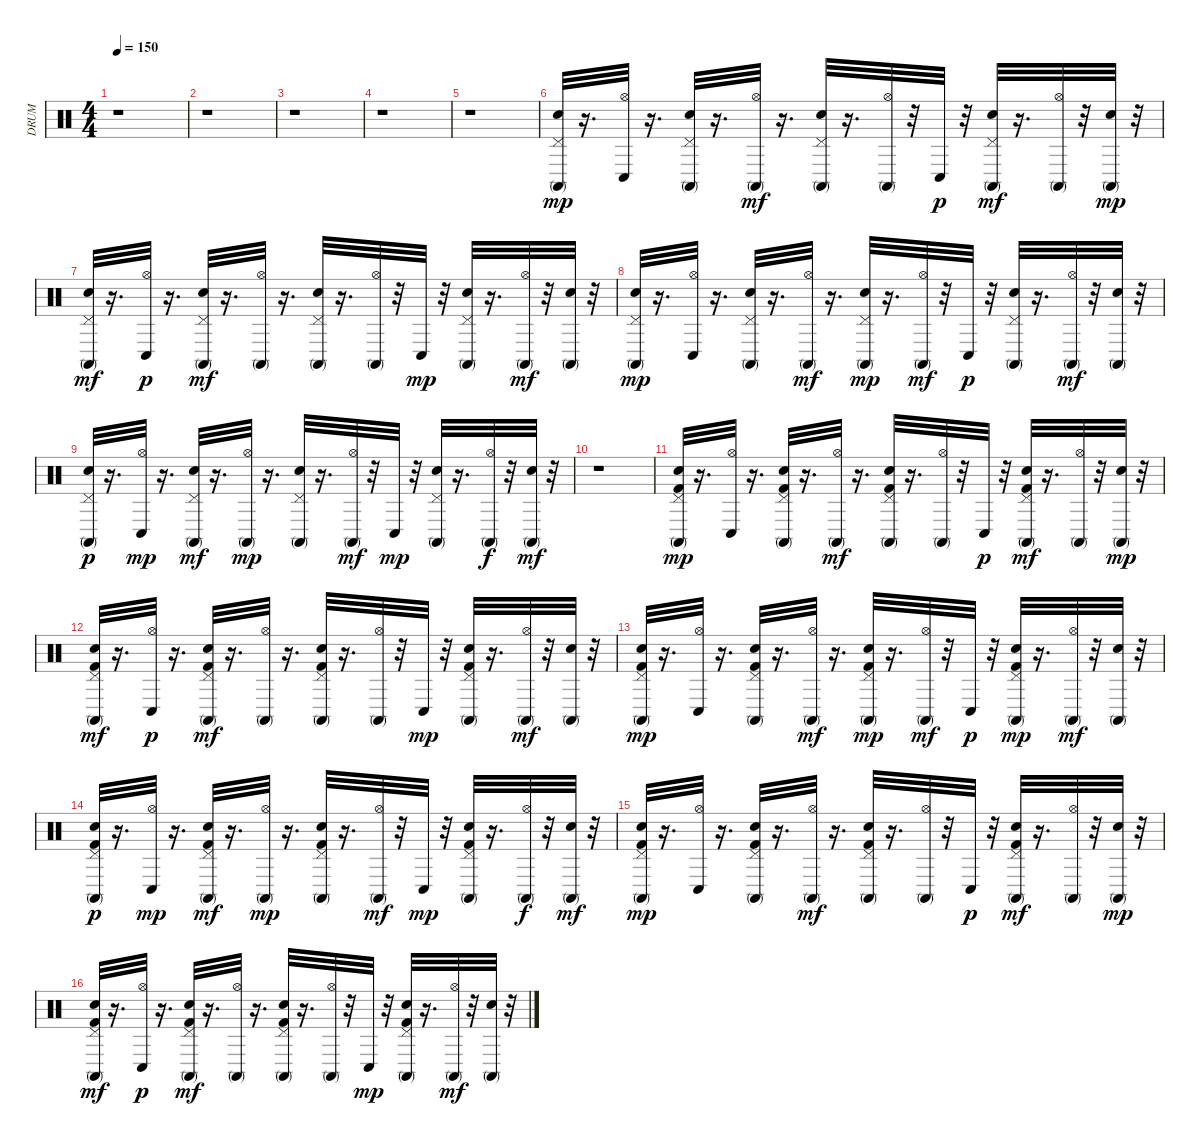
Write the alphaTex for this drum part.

\track ("DRUM" "DRUM") {instrument percussion}
\staff {score}
\articulation defaults
\ts (4 4)
\tempo 150
\clef neutral
\ks c
r.1{dy mp} |
r.1 |
r.1 |
r.1 |
r.1 |
("Hand Clap (hit)" "Pedal Hi-Hat (hit)" "Conga high (mute)").32 r.16{d} ("Hi-Hat (open)" "Conga low (hit)").32 r.16{d} ("Hand Clap (hit)" "Pedal Hi-Hat (hit)" "Conga high (mute)").32 r.16{d} ("Hi-Hat (open)" "Conga high (mute)").32{dy mf} r.16{d} ("Hand Clap (hit)" "Pedal Hi-Hat (hit)" "Conga high (mute)").32 r.16{d} ("Hi-Hat (open)" "Conga high (mute)").32 r.32 "Conga low (hit)".32{dy p} r.32 ("Hand Clap (hit)" "Pedal Hi-Hat (hit)" "Conga high (mute)").32{dy mf} r.16{d} ("Hi-Hat (open)" "Conga high (mute)").32 r.32 ("Hand Clap (hit)" "Conga high (mute)").32{dy mp} r.32 |
("Hand Clap (hit)" "Pedal Hi-Hat (hit)" "Conga high (mute)").32{dy mf} r.16{d} ("Hi-Hat (open)" "Conga low (hit)").32{dy p} r.16{d} ("Hand Clap (hit)" "Pedal Hi-Hat (hit)" "Conga high (mute)").32{dy mf} r.16{d} ("Hi-Hat (open)" "Conga high (mute)").32 r.16{d} ("Hand Clap (hit)" "Pedal Hi-Hat (hit)" "Conga high (mute)").32 r.16{d} ("Hi-Hat (open)" "Conga high (mute)").32 r.32 "Conga low (hit)".32{dy mp} r.32 ("Hand Clap (hit)" "Pedal Hi-Hat (hit)" "Conga high (mute)").32 r.16{d} ("Hi-Hat (open)" "Conga high (mute)").32{dy mf} r.32 ("Hand Clap (hit)" "Conga high (mute)").32 r.32 |
("Hand Clap (hit)" "Pedal Hi-Hat (hit)" "Conga high (mute)").32{dy mp} r.16{d} ("Hi-Hat (open)" "Conga low (hit)").32 r.16{d} ("Hand Clap (hit)" "Pedal Hi-Hat (hit)" "Conga high (mute)").32 r.16{d} ("Hi-Hat (open)" "Conga high (mute)").32{dy mf} r.16{d} ("Hand Clap (hit)" "Pedal Hi-Hat (hit)" "Conga high (mute)").32{dy mp} r.16{d} ("Hi-Hat (open)" "Conga high (mute)").32{dy mf} r.32 "Conga low (hit)".32{dy p} r.32 ("Hand Clap (hit)" "Pedal Hi-Hat (hit)" "Conga high (mute)").32 r.16{d} ("Hi-Hat (open)" "Conga high (mute)").32{dy mf} r.32 ("Hand Clap (hit)" "Conga high (mute)").32 r.32 |
("Hand Clap (hit)" "Pedal Hi-Hat (hit)" "Conga high (mute)").32{dy p} r.16{d} ("Hi-Hat (open)" "Conga low (hit)").32{dy mp} r.16{d} ("Hand Clap (hit)" "Pedal Hi-Hat (hit)" "Conga high (mute)").32{dy mf} r.16{d} ("Hi-Hat (open)" "Conga high (mute)").32{dy mp} r.16{d} ("Hand Clap (hit)" "Pedal Hi-Hat (hit)" "Conga high (mute)").32 r.16{d} ("Hi-Hat (open)" "Conga high (mute)").32{dy mf} r.32 "Conga low (hit)".32{dy mp} r.32 ("Hand Clap (hit)" "Pedal Hi-Hat (hit)" "Conga high (mute)").32 r.16{d} ("Hi-Hat (open)" "Conga high (mute)").32{dy f} r.32 ("Hand Clap (hit)" "Conga high (mute)").32{dy mf} r.32 |
r.1 |
("Kick (hit) 2" "Hand Clap (hit)" "Pedal Hi-Hat (hit)" "Conga high (mute)").32{dy mp} r.16{d} ("Hi-Hat (open)" "Conga low (hit)").32 r.16{d} ("Kick (hit) 2" "Hand Clap (hit)" "Pedal Hi-Hat (hit)" "Conga high (mute)").32 r.16{d} ("Hi-Hat (open)" "Conga high (mute)").32{dy mf} r.16{d} ("Kick (hit) 2" "Hand Clap (hit)" "Pedal Hi-Hat (hit)" "Conga high (mute)").32 r.16{d} ("Hi-Hat (open)" "Conga high (mute)").32 r.32 "Conga low (hit)".32{dy p} r.32 ("Kick (hit) 2" "Hand Clap (hit)" "Pedal Hi-Hat (hit)" "Conga high (mute)").32{dy mf} r.16{d} ("Hi-Hat (open)" "Conga high (mute)").32 r.32 ("Hand Clap (hit)" "Conga high (mute)").32{dy mp} r.32 |
("Kick (hit) 2" "Hand Clap (hit)" "Pedal Hi-Hat (hit)" "Conga high (mute)").32{dy mf} r.16{d} ("Hi-Hat (open)" "Conga low (hit)").32{dy p} r.16{d} ("Kick (hit) 2" "Hand Clap (hit)" "Pedal Hi-Hat (hit)" "Conga high (mute)").32{dy mf} r.16{d} ("Hi-Hat (open)" "Conga high (mute)").32 r.16{d} ("Kick (hit) 2" "Hand Clap (hit)" "Pedal Hi-Hat (hit)" "Conga high (mute)").32 r.16{d} ("Hi-Hat (open)" "Conga high (mute)").32 r.32 "Conga low (hit)".32{dy mp} r.32 ("Kick (hit) 2" "Hand Clap (hit)" "Pedal Hi-Hat (hit)" "Conga high (mute)").32 r.16{d} ("Hi-Hat (open)" "Conga high (mute)").32{dy mf} r.32 ("Hand Clap (hit)" "Conga high (mute)").32 r.32 |
("Kick (hit) 2" "Hand Clap (hit)" "Pedal Hi-Hat (hit)" "Conga high (mute)").32{dy mp} r.16{d} ("Hi-Hat (open)" "Conga low (hit)").32 r.16{d} ("Kick (hit) 2" "Hand Clap (hit)" "Pedal Hi-Hat (hit)" "Conga high (mute)").32 r.16{d} ("Hi-Hat (open)" "Conga high (mute)").32{dy mf} r.16{d} ("Kick (hit) 2" "Hand Clap (hit)" "Pedal Hi-Hat (hit)" "Conga high (mute)").32{dy mp} r.16{d} ("Hi-Hat (open)" "Conga high (mute)").32{dy mf} r.32 "Conga low (hit)".32{dy p} r.32 ("Kick (hit) 2" "Hand Clap (hit)" "Pedal Hi-Hat (hit)" "Conga high (mute)").32{dy mp} r.16{d} ("Hi-Hat (open)" "Conga high (mute)").32{dy mf} r.32 ("Hand Clap (hit)" "Conga high (mute)").32 r.32 |
("Kick (hit) 2" "Hand Clap (hit)" "Pedal Hi-Hat (hit)" "Conga high (mute)").32{dy p} r.16{d} ("Hi-Hat (open)" "Conga low (hit)").32{dy mp} r.16{d} ("Kick (hit) 2" "Hand Clap (hit)" "Pedal Hi-Hat (hit)" "Conga high (mute)").32{dy mf} r.16{d} ("Hi-Hat (open)" "Conga high (mute)").32{dy mp} r.16{d} ("Kick (hit) 2" "Hand Clap (hit)" "Pedal Hi-Hat (hit)" "Conga high (mute)").32 r.16{d} ("Hi-Hat (open)" "Conga high (mute)").32{dy mf} r.32 "Conga low (hit)".32{dy mp} r.32 ("Kick (hit) 2" "Hand Clap (hit)" "Pedal Hi-Hat (hit)" "Conga high (mute)").32 r.16{d} ("Hi-Hat (open)" "Conga high (mute)").32{dy f} r.32 ("Hand Clap (hit)" "Conga high (mute)").32{dy mf} r.32 |
("Kick (hit) 2" "Hand Clap (hit)" "Pedal Hi-Hat (hit)" "Conga high (mute)").32{dy mp} r.16{d} ("Hi-Hat (open)" "Conga low (hit)").32 r.16{d} ("Kick (hit) 2" "Hand Clap (hit)" "Pedal Hi-Hat (hit)" "Conga high (mute)").32 r.16{d} ("Hi-Hat (open)" "Conga high (mute)").32{dy mf} r.16{d} ("Kick (hit) 2" "Hand Clap (hit)" "Pedal Hi-Hat (hit)" "Conga high (mute)").32 r.16{d} ("Hi-Hat (open)" "Conga high (mute)").32 r.32 "Conga low (hit)".32{dy p} r.32 ("Kick (hit) 2" "Hand Clap (hit)" "Pedal Hi-Hat (hit)" "Conga high (mute)").32{dy mf} r.16{d} ("Hi-Hat (open)" "Conga high (mute)").32 r.32 ("Hand Clap (hit)" "Conga high (mute)").32{dy mp} r.32 |
("Kick (hit) 2" "Hand Clap (hit)" "Pedal Hi-Hat (hit)" "Conga high (mute)").32{dy mf} r.16{d} ("Hi-Hat (open)" "Conga low (hit)").32{dy p} r.16{d} ("Kick (hit) 2" "Hand Clap (hit)" "Pedal Hi-Hat (hit)" "Conga high (mute)").32{dy mf} r.16{d} ("Hi-Hat (open)" "Conga high (mute)").32 r.16{d} ("Kick (hit) 2" "Hand Clap (hit)" "Pedal Hi-Hat (hit)" "Conga high (mute)").32 r.16{d} ("Hi-Hat (open)" "Conga high (mute)").32 r.32 "Conga low (hit)".32{dy mp} r.32 ("Kick (hit) 2" "Hand Clap (hit)" "Pedal Hi-Hat (hit)" "Conga high (mute)").32 r.16{d} ("Hi-Hat (open)" "Conga high (mute)").32{dy mf} r.32 ("Hand Clap (hit)" "Conga high (mute)").32 r.32
